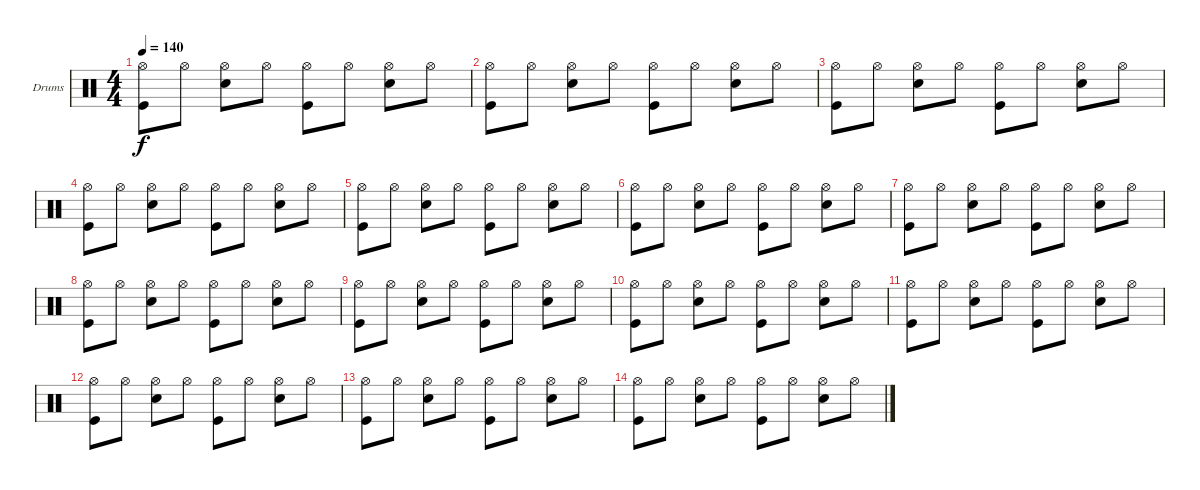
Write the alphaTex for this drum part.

\bracketExtendMode groupsimilarinstruments
\firstSystemTrackNameOrientation horizontal
\otherSystemsTrackNameOrientation horizontal
\track ("Drumkit" "Drums") {instrument percussion}
\staff {score}
\articulation defaults
\ts (4 4)
\tempo 140
\clef neutral
\ks c
("Hi-Hat (open)" "Kick (hit)").8{dy f} "Hi-Hat (open)".8 ("Hi-Hat (open)" "Snare (hit) 2").8 "Hi-Hat (open)".8 ("Hi-Hat (open)" "Kick (hit)").8 "Hi-Hat (open)".8 ("Hi-Hat (open)" "Snare (hit) 2").8 "Hi-Hat (open)".8 |
("Hi-Hat (open)" "Kick (hit)").8 "Hi-Hat (open)".8 ("Hi-Hat (open)" "Snare (hit) 2").8 "Hi-Hat (open)".8 ("Hi-Hat (open)" "Kick (hit)").8 "Hi-Hat (open)".8 ("Hi-Hat (open)" "Snare (hit) 2").8 "Hi-Hat (open)".8 |
("Hi-Hat (open)" "Kick (hit)").8 "Hi-Hat (open)".8 ("Hi-Hat (open)" "Snare (hit) 2").8 "Hi-Hat (open)".8 ("Hi-Hat (open)" "Kick (hit)").8 "Hi-Hat (open)".8 ("Hi-Hat (open)" "Snare (hit) 2").8 "Hi-Hat (open)".8 |
("Hi-Hat (open)" "Kick (hit)").8 "Hi-Hat (open)".8 ("Hi-Hat (open)" "Snare (hit) 2").8 "Hi-Hat (open)".8 ("Hi-Hat (open)" "Kick (hit)").8 "Hi-Hat (open)".8 ("Hi-Hat (open)" "Snare (hit) 2").8 "Hi-Hat (open)".8 |
("Hi-Hat (open)" "Kick (hit)").8 "Hi-Hat (open)".8 ("Hi-Hat (open)" "Snare (hit) 2").8 "Hi-Hat (open)".8 ("Hi-Hat (open)" "Kick (hit)").8 "Hi-Hat (open)".8 ("Hi-Hat (open)" "Snare (hit) 2").8 "Hi-Hat (open)".8 |
("Hi-Hat (open)" "Kick (hit)").8 "Hi-Hat (open)".8 ("Hi-Hat (open)" "Snare (hit) 2").8 "Hi-Hat (open)".8 ("Hi-Hat (open)" "Kick (hit)").8 "Hi-Hat (open)".8 ("Hi-Hat (open)" "Snare (hit) 2").8 "Hi-Hat (open)".8 |
("Hi-Hat (open)" "Kick (hit)").8 "Hi-Hat (open)".8 ("Hi-Hat (open)" "Snare (hit) 2").8 "Hi-Hat (open)".8 ("Hi-Hat (open)" "Kick (hit)").8 "Hi-Hat (open)".8 ("Hi-Hat (open)" "Snare (hit) 2").8 "Hi-Hat (open)".8 |
("Hi-Hat (open)" "Kick (hit)").8 "Hi-Hat (open)".8 ("Hi-Hat (open)" "Snare (hit) 2").8 "Hi-Hat (open)".8 ("Hi-Hat (open)" "Kick (hit)").8 "Hi-Hat (open)".8 ("Hi-Hat (open)" "Snare (hit) 2").8 "Hi-Hat (open)".8 |
("Hi-Hat (open)" "Kick (hit)").8 "Hi-Hat (open)".8 ("Hi-Hat (open)" "Snare (hit) 2").8 "Hi-Hat (open)".8 ("Hi-Hat (open)" "Kick (hit)").8 "Hi-Hat (open)".8 ("Hi-Hat (open)" "Snare (hit) 2").8 "Hi-Hat (open)".8 |
("Hi-Hat (open)" "Kick (hit)").8 "Hi-Hat (open)".8 ("Hi-Hat (open)" "Snare (hit) 2").8 "Hi-Hat (open)".8 ("Hi-Hat (open)" "Kick (hit)").8 "Hi-Hat (open)".8 ("Hi-Hat (open)" "Snare (hit) 2").8 "Hi-Hat (open)".8 |
("Hi-Hat (open)" "Kick (hit)").8 "Hi-Hat (open)".8 ("Hi-Hat (open)" "Snare (hit) 2").8 "Hi-Hat (open)".8 ("Hi-Hat (open)" "Kick (hit)").8 "Hi-Hat (open)".8 ("Hi-Hat (open)" "Snare (hit) 2").8 "Hi-Hat (open)".8 |
("Hi-Hat (open)" "Kick (hit)").8 "Hi-Hat (open)".8 ("Hi-Hat (open)" "Snare (hit) 2").8 "Hi-Hat (open)".8 ("Hi-Hat (open)" "Kick (hit)").8 "Hi-Hat (open)".8 ("Hi-Hat (open)" "Snare (hit) 2").8 "Hi-Hat (open)".8 |
("Hi-Hat (open)" "Kick (hit)").8 "Hi-Hat (open)".8 ("Hi-Hat (open)" "Snare (hit) 2").8 "Hi-Hat (open)".8 ("Hi-Hat (open)" "Kick (hit)").8 "Hi-Hat (open)".8 ("Hi-Hat (open)" "Snare (hit) 2").8 "Hi-Hat (open)".8 |
("Hi-Hat (open)" "Kick (hit)").8 "Hi-Hat (open)".8 ("Hi-Hat (open)" "Snare (hit) 2").8 "Hi-Hat (open)".8 ("Hi-Hat (open)" "Kick (hit)").8 "Hi-Hat (open)".8 ("Hi-Hat (open)" "Snare (hit) 2").8 "Hi-Hat (open)".8
